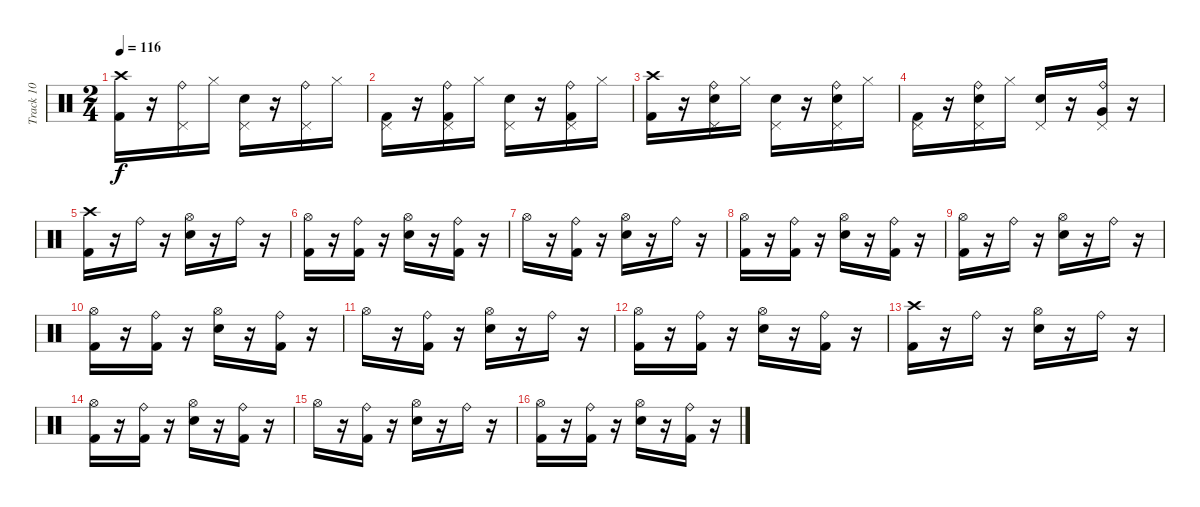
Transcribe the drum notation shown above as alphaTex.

\track ("Track 10" "Track 10") {instrument percussion}
\staff {score}
\articulation defaults
\ts (2 4)
\tempo 116
\clef neutral
\ks c
("Crash high (hit)" "Kick (hit) 2").16{dy f} r.16 ("Ride (bell)" "Pedal Hi-Hat (hit)").16 "Hi-Hat (closed)".16 ("Pedal Hi-Hat (hit)" "Electric Snare (hit)").16 r.16 ("Pedal Hi-Hat (hit)" "Ride (bell)").16 "Hi-Hat (closed)".16 |
("Pedal Hi-Hat (hit)" "Kick (hit) 2").16 r.16 ("Ride (bell)" "Kick (hit) 2" "Pedal Hi-Hat (hit)").16 "Hi-Hat (closed)".16 ("Pedal Hi-Hat (hit)" "Electric Snare (hit)").16 r.16 ("Kick (hit) 2" "Pedal Hi-Hat (hit)" "Ride (bell)").16 "Hi-Hat (closed)".16 |
("Kick (hit) 2" "Crash high (hit)").16 r.16 ("Pedal Hi-Hat (hit)" "Electric Snare (hit)" "Ride (bell)").16 "Hi-Hat (closed)".16 ("Pedal Hi-Hat (hit)" "Electric Snare (hit)").16 r.16 ("Electric Snare (hit)" "Pedal Hi-Hat (hit)" "Ride (bell)").16 "Hi-Hat (closed)".16 |
("Pedal Hi-Hat (hit)" "Kick (hit) 2").16 r.16 ("Pedal Hi-Hat (hit)" "Ride (bell)" "Electric Snare (hit)").16 "Hi-Hat (closed)".16 ("Electric Snare (hit)" "Pedal Hi-Hat (hit)").16 r.16 ("Very Low Tom (hit)" "Ride (bell)" "Pedal Hi-Hat (hit)").16 r.16 |
("Crash high (hit)" "Kick (hit) 2").16 r.16 "Ride (bell)".16 r.16 ("Hi-Hat (open)" "Electric Snare (hit)").16 r.16 "Ride (bell)".16 r.16 |
("Kick (hit) 2" "Hi-Hat (open)").16 r.16 ("Ride (bell)" "Kick (hit) 2").16 r.16 ("Hi-Hat (open)" "Electric Snare (hit)").16 r.16 ("Kick (hit) 2" "Ride (bell)").16 r.16 |
"Hi-Hat (open)".16 r.16 ("Kick (hit) 2" "Ride (bell)").16 r.16 ("Hi-Hat (open)" "Electric Snare (hit)").16 r.16 "Ride (bell)".16 r.16 |
("Hi-Hat (open)" "Kick (hit) 2").16 r.16 ("Ride (bell)" "Kick (hit) 2").16 r.16 ("Hi-Hat (open)" "Electric Snare (hit)").16 r.16 ("Ride (bell)" "Kick (hit) 2").16 r.16 |
("Kick (hit) 2" "Hi-Hat (open)").16 r.16 "Ride (bell)".16 r.16 ("Hi-Hat (open)" "Electric Snare (hit)").16 r.16 "Ride (bell)".16 r.16 |
("Hi-Hat (open)" "Kick (hit) 2").16 r.16 ("Ride (bell)" "Kick (hit) 2").16 r.16 ("Electric Snare (hit)" "Hi-Hat (open)").16 r.16 ("Kick (hit) 2" "Ride (bell)").16 r.16 |
"Hi-Hat (open)".16 r.16 ("Kick (hit) 2" "Ride (bell)").16 r.16 ("Electric Snare (hit)" "Hi-Hat (open)").16 r.16 "Ride (bell)".16 r.16 |
("Hi-Hat (open)" "Kick (hit) 2").16 r.16 ("Ride (bell)" "Kick (hit) 2").16 r.16 ("Electric Snare (hit)" "Hi-Hat (open)").16 r.16 ("Ride (bell)" "Kick (hit) 2").16 r.16 |
("Crash high (hit)" "Kick (hit) 2").16 r.16 "Ride (bell)".16 r.16 ("Hi-Hat (open)" "Electric Snare (hit)").16 r.16 "Ride (bell)".16 r.16 |
("Hi-Hat (open)" "Kick (hit) 2").16 r.16 ("Ride (bell)" "Kick (hit) 2").16 r.16 ("Hi-Hat (open)" "Electric Snare (hit)").16 r.16 ("Kick (hit) 2" "Ride (bell)").16 r.16 |
"Hi-Hat (open)".16 r.16 ("Kick (hit) 2" "Ride (bell)").16 r.16 ("Electric Snare (hit)" "Hi-Hat (open)").16 r.16 "Ride (bell)".16 r.16 |
("Kick (hit) 2" "Hi-Hat (open)").16 r.16 ("Ride (bell)" "Kick (hit) 2").16 r.16 ("Electric Snare (hit)" "Hi-Hat (open)").16 r.16 ("Ride (bell)" "Kick (hit) 2").16 r.16
